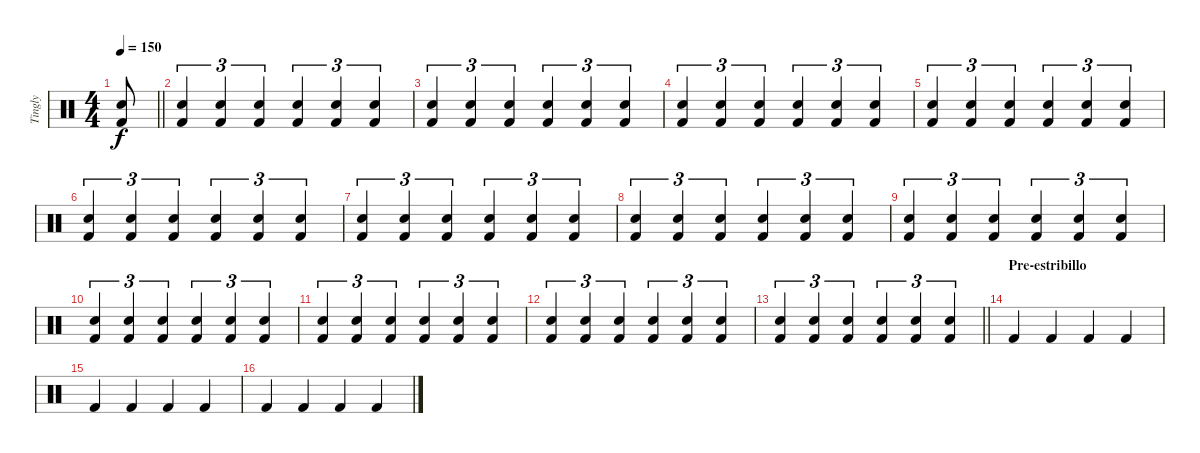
\track ("Tingly" "Tingly") {instrument percussion}
\staff {score}
\articulation defaults
\ts (4 4)
\tempo 150
\clef neutral
\barLineRight lightlight
\ks c
("Electric Snare (hit)" "Kick (hit) 2").8{dy f} |
("Kick (hit) 2" "Electric Snare (hit)").4{tu (3 2)} ("Kick (hit) 2" "Electric Snare (hit)").4{tu (3 2)} ("Kick (hit) 2" "Electric Snare (hit)").4{tu (3 2)} ("Kick (hit) 2" "Electric Snare (hit)").4{tu (3 2)} ("Kick (hit) 2" "Electric Snare (hit)").4{tu (3 2)} ("Kick (hit) 2" "Electric Snare (hit)").4{tu (3 2)} |
("Kick (hit) 2" "Electric Snare (hit)").4{tu (3 2)} ("Kick (hit) 2" "Electric Snare (hit)").4{tu (3 2)} ("Kick (hit) 2" "Electric Snare (hit)").4{tu (3 2)} ("Kick (hit) 2" "Electric Snare (hit)").4{tu (3 2)} ("Kick (hit) 2" "Electric Snare (hit)").4{tu (3 2)} ("Kick (hit) 2" "Electric Snare (hit)").4{tu (3 2)} |
("Kick (hit) 2" "Electric Snare (hit)").4{tu (3 2)} ("Kick (hit) 2" "Electric Snare (hit)").4{tu (3 2)} ("Kick (hit) 2" "Electric Snare (hit)").4{tu (3 2)} ("Kick (hit) 2" "Electric Snare (hit)").4{tu (3 2)} ("Kick (hit) 2" "Electric Snare (hit)").4{tu (3 2)} ("Kick (hit) 2" "Electric Snare (hit)").4{tu (3 2)} |
("Kick (hit) 2" "Electric Snare (hit)").4{tu (3 2)} ("Kick (hit) 2" "Electric Snare (hit)").4{tu (3 2)} ("Kick (hit) 2" "Electric Snare (hit)").4{tu (3 2)} ("Kick (hit) 2" "Electric Snare (hit)").4{tu (3 2)} ("Kick (hit) 2" "Electric Snare (hit)").4{tu (3 2)} ("Kick (hit) 2" "Electric Snare (hit)").4{tu (3 2)} |
("Kick (hit) 2" "Electric Snare (hit)").4{tu (3 2)} ("Kick (hit) 2" "Electric Snare (hit)").4{tu (3 2)} ("Kick (hit) 2" "Electric Snare (hit)").4{tu (3 2)} ("Kick (hit) 2" "Electric Snare (hit)").4{tu (3 2)} ("Kick (hit) 2" "Electric Snare (hit)").4{tu (3 2)} ("Kick (hit) 2" "Electric Snare (hit)").4{tu (3 2)} |
("Kick (hit) 2" "Electric Snare (hit)").4{tu (3 2)} ("Kick (hit) 2" "Electric Snare (hit)").4{tu (3 2)} ("Kick (hit) 2" "Electric Snare (hit)").4{tu (3 2)} ("Kick (hit) 2" "Electric Snare (hit)").4{tu (3 2)} ("Kick (hit) 2" "Electric Snare (hit)").4{tu (3 2)} ("Kick (hit) 2" "Electric Snare (hit)").4{tu (3 2)} |
("Kick (hit) 2" "Electric Snare (hit)").4{tu (3 2)} ("Kick (hit) 2" "Electric Snare (hit)").4{tu (3 2)} ("Kick (hit) 2" "Electric Snare (hit)").4{tu (3 2)} ("Kick (hit) 2" "Electric Snare (hit)").4{tu (3 2)} ("Kick (hit) 2" "Electric Snare (hit)").4{tu (3 2)} ("Kick (hit) 2" "Electric Snare (hit)").4{tu (3 2)} |
("Kick (hit) 2" "Electric Snare (hit)").4{tu (3 2)} ("Kick (hit) 2" "Electric Snare (hit)").4{tu (3 2)} ("Kick (hit) 2" "Electric Snare (hit)").4{tu (3 2)} ("Kick (hit) 2" "Electric Snare (hit)").4{tu (3 2)} ("Kick (hit) 2" "Electric Snare (hit)").4{tu (3 2)} ("Kick (hit) 2" "Electric Snare (hit)").4{tu (3 2)} |
("Kick (hit) 2" "Electric Snare (hit)").4{tu (3 2)} ("Kick (hit) 2" "Electric Snare (hit)").4{tu (3 2)} ("Kick (hit) 2" "Electric Snare (hit)").4{tu (3 2)} ("Kick (hit) 2" "Electric Snare (hit)").4{tu (3 2)} ("Kick (hit) 2" "Electric Snare (hit)").4{tu (3 2)} ("Kick (hit) 2" "Electric Snare (hit)").4{tu (3 2)} |
("Kick (hit) 2" "Electric Snare (hit)").4{tu (3 2)} ("Kick (hit) 2" "Electric Snare (hit)").4{tu (3 2)} ("Kick (hit) 2" "Electric Snare (hit)").4{tu (3 2)} ("Kick (hit) 2" "Electric Snare (hit)").4{tu (3 2)} ("Kick (hit) 2" "Electric Snare (hit)").4{tu (3 2)} ("Kick (hit) 2" "Electric Snare (hit)").4{tu (3 2)} |
("Kick (hit) 2" "Electric Snare (hit)").4{tu (3 2)} ("Kick (hit) 2" "Electric Snare (hit)").4{tu (3 2)} ("Kick (hit) 2" "Electric Snare (hit)").4{tu (3 2)} ("Kick (hit) 2" "Electric Snare (hit)").4{tu (3 2)} ("Kick (hit) 2" "Electric Snare (hit)").4{tu (3 2)} ("Kick (hit) 2" "Electric Snare (hit)").4{tu (3 2)} |
\barLineRight lightlight
("Kick (hit) 2" "Electric Snare (hit)").4{tu (3 2)} ("Kick (hit) 2" "Electric Snare (hit)").4{tu (3 2)} ("Kick (hit) 2" "Electric Snare (hit)").4{tu (3 2)} ("Kick (hit) 2" "Electric Snare (hit)").4{tu (3 2)} ("Kick (hit) 2" "Electric Snare (hit)").4{tu (3 2)} ("Kick (hit) 2" "Electric Snare (hit)").4{tu (3 2)} |
\section ("" "Pre-estribillo")
"Kick (hit) 2".4 "Kick (hit) 2".4 "Kick (hit) 2".4 "Kick (hit) 2".4 |
"Kick (hit) 2".4 "Kick (hit) 2".4 "Kick (hit) 2".4 "Kick (hit) 2".4 |
"Kick (hit) 2".4 "Kick (hit) 2".4 "Kick (hit) 2".4 "Kick (hit) 2".4
